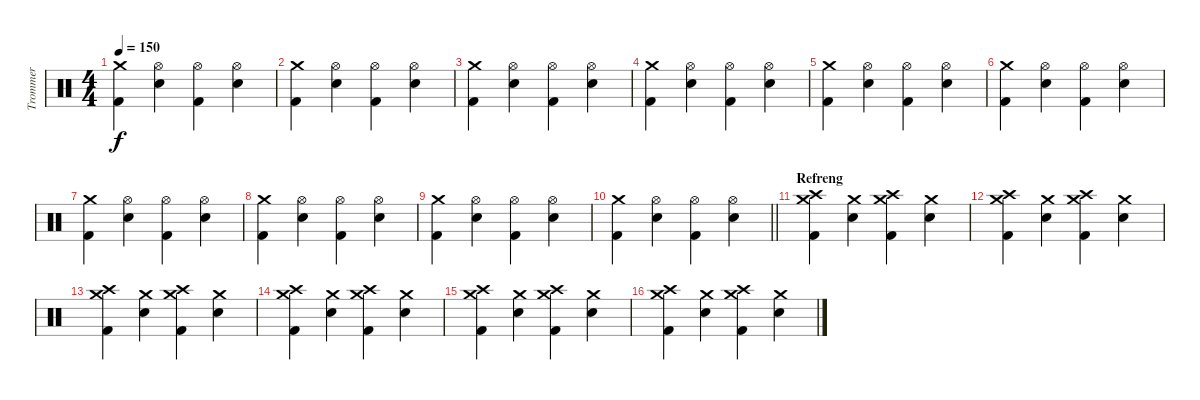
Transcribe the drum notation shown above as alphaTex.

\track ("Trommer" "Trommer") {instrument percussion}
\staff {score}
\articulation defaults
\ts (4 4)
\tempo 150
\clef neutral
\ks c
("Crash medium (hit)" "Kick (hit) 2").4{dy f} ("Hi-Hat (open)" "Snare (hit) 2").4 ("Hi-Hat (open)" "Kick (hit) 2").4 ("Hi-Hat (open)" "Snare (hit) 2").4 |
("Crash medium (hit)" "Kick (hit) 2").4 ("Hi-Hat (open)" "Snare (hit) 2").4 ("Hi-Hat (open)" "Kick (hit) 2").4 ("Hi-Hat (open)" "Snare (hit) 2").4 |
("Crash medium (hit)" "Kick (hit) 2").4 ("Hi-Hat (open)" "Snare (hit) 2").4 ("Hi-Hat (open)" "Kick (hit) 2").4 ("Hi-Hat (open)" "Snare (hit) 2").4 |
("Crash medium (hit)" "Kick (hit) 2").4 ("Hi-Hat (open)" "Snare (hit) 2").4 ("Hi-Hat (open)" "Kick (hit) 2").4 ("Hi-Hat (open)" "Snare (hit) 2").4 |
("Crash medium (hit)" "Kick (hit) 2").4 ("Hi-Hat (open)" "Snare (hit) 2").4 ("Hi-Hat (open)" "Kick (hit) 2").4 ("Hi-Hat (open)" "Snare (hit) 2").4 |
("Crash medium (hit)" "Kick (hit) 2").4 ("Hi-Hat (open)" "Snare (hit) 2").4 ("Hi-Hat (open)" "Kick (hit) 2").4 ("Hi-Hat (open)" "Snare (hit) 2").4 |
("Crash medium (hit)" "Kick (hit) 2").4 ("Hi-Hat (open)" "Snare (hit) 2").4 ("Hi-Hat (open)" "Kick (hit) 2").4 ("Hi-Hat (open)" "Snare (hit) 2").4 |
("Crash medium (hit)" "Kick (hit) 2").4 ("Hi-Hat (open)" "Snare (hit) 2").4 ("Hi-Hat (open)" "Kick (hit) 2").4 ("Hi-Hat (open)" "Snare (hit) 2").4 |
("Crash medium (hit)" "Kick (hit) 2").4 ("Hi-Hat (open)" "Snare (hit) 2").4 ("Hi-Hat (open)" "Kick (hit) 2").4 ("Hi-Hat (open)" "Snare (hit) 2").4 |
\barLineRight lightlight
("Crash medium (hit)" "Kick (hit) 2").4 ("Hi-Hat (open)" "Snare (hit) 2").4 ("Hi-Hat (open)" "Kick (hit) 2").4 ("Hi-Hat (open)" "Snare (hit) 2").4 |
\section ("" "Refreng")
("Crash medium (hit)" "Crash high (hit)" "Kick (hit) 2").4 ("Crash medium (hit)" "Snare (hit) 2").4 ("Crash medium (hit)" "Crash high (hit)" "Kick (hit) 2").4 ("Crash medium (hit)" "Snare (hit) 2").4 |
("Crash medium (hit)" "Crash high (hit)" "Kick (hit) 2").4 ("Crash medium (hit)" "Snare (hit) 2").4 ("Crash medium (hit)" "Crash high (hit)" "Kick (hit) 2").4 ("Crash medium (hit)" "Snare (hit) 2").4 |
("Crash medium (hit)" "Crash high (hit)" "Kick (hit) 2").4 ("Crash medium (hit)" "Snare (hit) 2").4 ("Crash medium (hit)" "Crash high (hit)" "Kick (hit) 2").4 ("Crash medium (hit)" "Snare (hit) 2").4 |
("Crash medium (hit)" "Crash high (hit)" "Kick (hit) 2").4 ("Crash medium (hit)" "Snare (hit) 2").4 ("Crash medium (hit)" "Crash high (hit)" "Kick (hit) 2").4 ("Crash medium (hit)" "Snare (hit) 2").4 |
("Crash medium (hit)" "Crash high (hit)" "Kick (hit) 2").4 ("Crash medium (hit)" "Snare (hit) 2").4 ("Crash medium (hit)" "Crash high (hit)" "Kick (hit) 2").4 ("Crash medium (hit)" "Snare (hit) 2").4 |
("Crash medium (hit)" "Crash high (hit)" "Kick (hit) 2").4 ("Crash medium (hit)" "Snare (hit) 2").4 ("Crash medium (hit)" "Crash high (hit)" "Kick (hit) 2").4 ("Crash medium (hit)" "Snare (hit) 2").4
